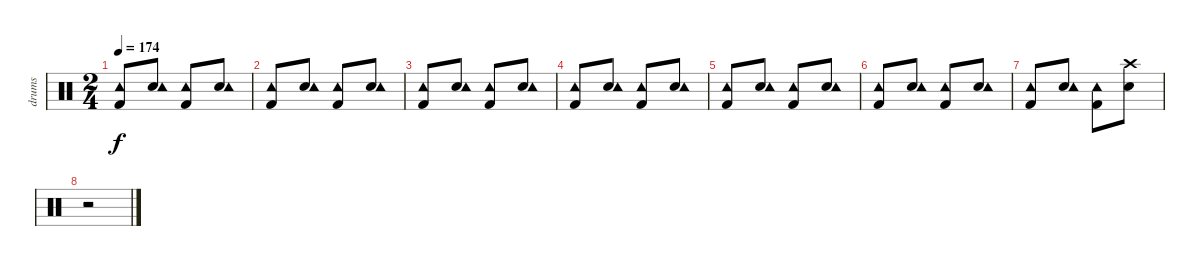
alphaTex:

\track ("drums" "drums") {instrument percussion}
\staff {score}
\articulation defaults
\ts (2 4)
\tempo 174
\clef neutral
\ks c
("Tambourine (hit)" "Kick (hit) 2").8{dy f} ("Snare (hit) 2" "Tambourine (hit)").8 ("Kick (hit) 2" "Tambourine (hit)").8 ("Snare (hit) 2" "Tambourine (hit)").8 |
("Tambourine (hit)" "Kick (hit) 2").8 ("Snare (hit) 2" "Tambourine (hit)").8 ("Kick (hit) 2" "Tambourine (hit)").8 ("Snare (hit) 2" "Tambourine (hit)").8 |
("Tambourine (hit)" "Kick (hit) 2").8 ("Snare (hit) 2" "Tambourine (hit)").8 ("Kick (hit) 2" "Tambourine (hit)").8 ("Snare (hit) 2" "Tambourine (hit)").8 |
("Tambourine (hit)" "Kick (hit) 2").8 ("Snare (hit) 2" "Tambourine (hit)").8 ("Kick (hit) 2" "Tambourine (hit)").8 ("Snare (hit) 2" "Tambourine (hit)").8 |
("Tambourine (hit)" "Kick (hit) 2").8 ("Snare (hit) 2" "Tambourine (hit)").8 ("Kick (hit) 2" "Tambourine (hit)").8 ("Snare (hit) 2" "Tambourine (hit)").8 |
("Tambourine (hit)" "Kick (hit) 2").8 ("Snare (hit) 2" "Tambourine (hit)").8 ("Kick (hit) 2" "Tambourine (hit)").8 ("Snare (hit) 2" "Tambourine (hit)").8 |
("Tambourine (hit)" "Kick (hit) 2").8 ("Snare (hit) 2" "Tambourine (hit)").8 ("Kick (hit) 2" "Tambourine (hit)").8 ("Snare (hit) 2" "Crash high (hit)").8 |
r.2
